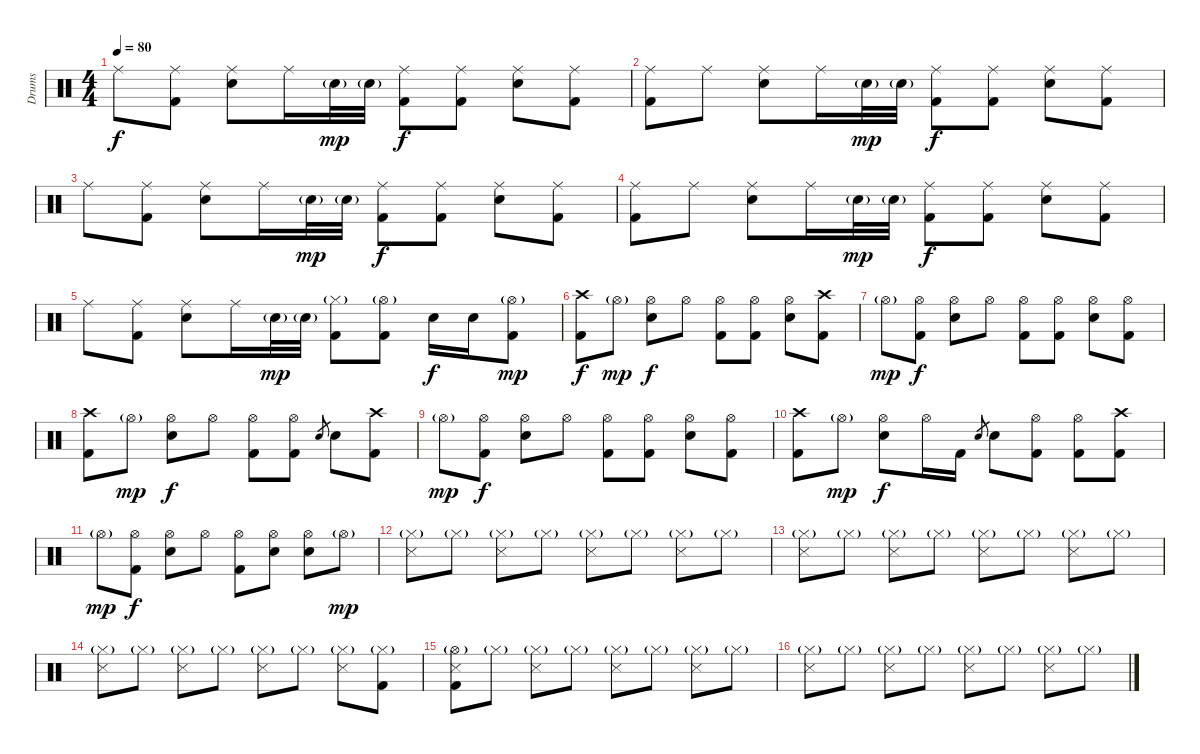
\track ("Drums" "Drums") {instrument percussion}
\staff {score}
\articulation defaults
\ts (4 4)
\tempo 80
\clef neutral
\ks c "Ride (middle)".8{dy f}
("Ride (middle)" "Kick (hit) 2").8 ("Ride (middle)" "Snare (hit) 2").8 "Ride (middle)".16 "Snare (hit) 2"{g}.32{dy mp} "Snare (hit) 2"{g}.32 ("Ride (middle)" "Kick (hit) 2").8{dy f} ("Ride (middle)" "Kick (hit) 2").8 ("Ride (middle)" "Snare (hit) 2").8 ("Ride (middle)" "Kick (hit) 2").8 |
("Ride (middle)" "Kick (hit) 2").8 "Ride (middle)".8 ("Ride (middle)" "Snare (hit) 2").8 "Ride (middle)".16 "Snare (hit) 2"{g}.32{dy mp} "Snare (hit) 2"{g}.32 ("Ride (middle)" "Kick (hit) 2").8{dy f} ("Ride (middle)" "Kick (hit) 2").8 ("Ride (middle)" "Snare (hit) 2").8 ("Ride (middle)" "Kick (hit) 2").8 |
"Ride (middle)".8 ("Ride (middle)" "Kick (hit) 2").8 ("Ride (middle)" "Snare (hit) 2").8 "Ride (middle)".16 "Snare (hit) 2"{g}.32{dy mp} "Snare (hit) 2"{g}.32 ("Ride (middle)" "Kick (hit) 2").8{dy f} ("Ride (middle)" "Kick (hit) 2").8 ("Ride (middle)" "Snare (hit) 2").8 ("Ride (middle)" "Kick (hit) 2").8 |
("Ride (middle)" "Kick (hit) 2").8 "Ride (middle)".8 ("Ride (middle)" "Snare (hit) 2").8 "Ride (middle)".16 "Snare (hit) 2"{g}.32{dy mp} "Snare (hit) 2"{g}.32 ("Ride (middle)" "Kick (hit) 2").8{dy f} ("Ride (middle)" "Kick (hit) 2").8 ("Ride (middle)" "Snare (hit) 2").8 ("Ride (middle)" "Kick (hit) 2").8 |
"Ride (middle)".8 ("Ride (middle)" "Kick (hit) 2").8 ("Ride (middle)" "Snare (hit) 2").8 "Ride (middle)".16 "Snare (hit) 2"{g}.32{dy mp} "Snare (hit) 2"{g}.32 ("Hi-Hat (closed)"{g} "Kick (hit) 2").8 ("Hi-Hat (open)"{g} "Kick (hit) 2").8 "Snare (hit) 2".16{dy f} "Snare (hit) 2".16 ("Hi-Hat (open)"{g} "Kick (hit) 2").8{dy mp} |
("Crash high (hit)" "Kick (hit) 2").8{dy f} "Hi-Hat (open)"{g}.8{dy mp} ("Hi-Hat (open)" "Snare (hit) 2").8{dy f} "Hi-Hat (open)".8 ("Hi-Hat (open)" "Kick (hit) 2").8 ("Hi-Hat (open)" "Kick (hit) 2").8 ("Hi-Hat (open)" "Snare (hit) 2").8 ("Crash high (hit)" "Kick (hit) 2").8 |
"Hi-Hat (open)"{g}.8{dy mp} ("Hi-Hat (open)" "Kick (hit) 2").8{dy f} ("Hi-Hat (open)" "Snare (hit) 2").8 "Hi-Hat (open)".8 ("Hi-Hat (open)" "Kick (hit) 2").8 ("Hi-Hat (open)" "Kick (hit) 2").8 ("Hi-Hat (open)" "Snare (hit) 2").8 ("Hi-Hat (open)" "Kick (hit) 2").8 |
("Crash high (hit)" "Kick (hit) 2").8 "Hi-Hat (open)"{g}.8{dy mp} ("Hi-Hat (open)" "Snare (hit) 2").8{dy f} "Hi-Hat (open)".8 ("Hi-Hat (open)" "Kick (hit) 2").8 ("Hi-Hat (open)" "Kick (hit) 2").8 "Snare (hit) 2".8{gr} "Snare (hit) 2".8 ("Crash high (hit)" "Kick (hit) 2").8 |
"Hi-Hat (open)"{g}.8{dy mp} ("Hi-Hat (open)" "Kick (hit) 2").8{dy f} ("Hi-Hat (open)" "Snare (hit) 2").8 "Hi-Hat (open)".8 ("Hi-Hat (open)" "Kick (hit) 2").8 ("Hi-Hat (open)" "Kick (hit) 2").8 ("Hi-Hat (open)" "Snare (hit) 2").8 ("Hi-Hat (open)" "Kick (hit) 2").8 |
("Crash high (hit)" "Kick (hit) 2").8 "Hi-Hat (open)"{g}.8{dy mp} ("Hi-Hat (open)" "Snare (hit) 2").8{dy f} "Hi-Hat (open)".16 "Kick (hit) 2".16 "Snare (hit) 2".8{gr} "Snare (hit) 2".8 ("Hi-Hat (open)" "Kick (hit) 2").8 ("Hi-Hat (open)" "Kick (hit) 2").8 ("Crash high (hit)" "Kick (hit) 2").8 |
"Hi-Hat (open)"{g}.8{dy mp} ("Hi-Hat (open)" "Kick (hit) 2").8{dy f} ("Hi-Hat (open)" "Snare (hit) 2").8 "Hi-Hat (open)".8 ("Hi-Hat (open)" "Kick (hit) 2").8 ("Hi-Hat (open)" "Snare (hit) 2").8 ("Hi-Hat (open)" "Snare (hit) 2").8 "Hi-Hat (open)"{g}.8{dy mp} |
("Hi-Hat (closed)"{g} "Snare (side stick) 3").8 "Hi-Hat (closed)"{g}.8 ("Hi-Hat (closed)"{g} "Snare (side stick) 3").8 "Hi-Hat (closed)"{g}.8 ("Hi-Hat (closed)"{g} "Snare (side stick) 3").8 "Hi-Hat (closed)"{g}.8 ("Hi-Hat (closed)"{g} "Snare (side stick) 3").8 "Hi-Hat (closed)"{g}.8 |
("Hi-Hat (closed)"{g} "Snare (side stick) 3").8 "Hi-Hat (closed)"{g}.8 ("Hi-Hat (closed)"{g} "Snare (side stick) 3").8 "Hi-Hat (closed)"{g}.8 ("Hi-Hat (closed)"{g} "Snare (side stick) 3").8 "Hi-Hat (closed)"{g}.8 ("Hi-Hat (closed)"{g} "Snare (side stick) 3").8 "Hi-Hat (closed)"{g}.8 |
("Hi-Hat (closed)"{g} "Snare (side stick) 3").8 "Hi-Hat (closed)"{g}.8 ("Hi-Hat (closed)"{g} "Snare (side stick) 3").8 "Hi-Hat (closed)"{g}.8 ("Hi-Hat (closed)"{g} "Snare (side stick) 3").8 "Hi-Hat (closed)"{g}.8 ("Hi-Hat (closed)"{g} "Snare (side stick) 3").8 ("Hi-Hat (closed)"{g} "Kick (hit) 2").8 |
("Hi-Hat (open)"{g} "Snare (side stick) 3" "Kick (hit) 2").8 "Hi-Hat (closed)"{g}.8 ("Hi-Hat (closed)"{g} "Snare (side stick) 3").8 "Hi-Hat (closed)"{g}.8 ("Hi-Hat (closed)"{g} "Snare (side stick) 3").8 "Hi-Hat (closed)"{g}.8 ("Hi-Hat (closed)"{g} "Snare (side stick) 3").8 "Hi-Hat (closed)"{g}.8 |
("Hi-Hat (closed)"{g} "Snare (side stick) 3").8 "Hi-Hat (closed)"{g}.8 ("Hi-Hat (closed)"{g} "Snare (side stick) 3").8 "Hi-Hat (closed)"{g}.8 ("Hi-Hat (closed)"{g} "Snare (side stick) 3").8 "Hi-Hat (closed)"{g}.8 ("Hi-Hat (closed)"{g} "Snare (side stick) 3").8 "Hi-Hat (closed)"{g}.8
